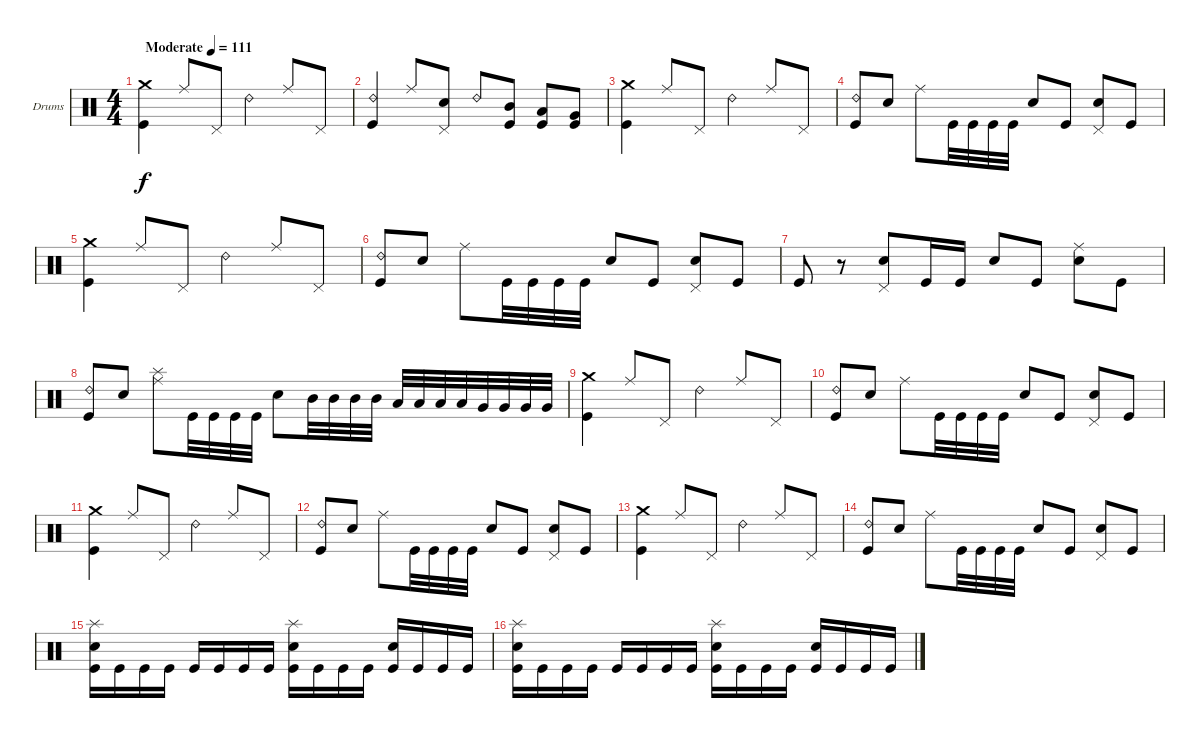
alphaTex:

\bracketExtendMode groupsimilarinstruments
\firstSystemTrackNameOrientation horizontal
\otherSystemsTrackNameOrientation horizontal
\track ("Drumkit" "Drums") {instrument percussion}
\staff {score}
\articulation defaults
\ts (4 4)
\beaming (8 2 2 2 2)
\tempo (111 "Moderate")
\clef neutral
\ks c
("Crash medium (hit)" "Kick (hit)").4{dy f} "Ride (middle)".8 "Pedal Hi-Hat (hit)".8 "Ride (bell) 2".4 "Ride (middle)".8 "Pedal Hi-Hat (hit)".8 |
("Ride (bell) 2" "Kick (hit)").4 "Ride (middle)".8 ("Pedal Hi-Hat (hit)" "Snare (hit) 2").8 "Ride (bell) 2".8 ("Mid Tom (hit)" "Kick (hit)").8 ("Low Tom (hit)" "Kick (hit)").8 ("Very Low Tom (hit)" "Kick (hit)").8 |
("Crash medium (hit)" "Kick (hit)").4 "Ride (middle)".8 "Pedal Hi-Hat (hit)".8 "Ride (bell) 2".4 "Ride (middle)".8 "Pedal Hi-Hat (hit)".8 |
("Ride (bell) 2" "Kick (hit)").8 "Snare (hit) 2".8 "Ride (middle)".8 "Kick (hit)".32 "Kick (hit)".32 "Kick (hit)".32 "Kick (hit)".32 "Snare (hit) 2".8 "Kick (hit)".8 ("Pedal Hi-Hat (hit)" "Snare (hit) 2").8 "Kick (hit)".8 |
("Crash medium (hit)" "Kick (hit)").4 "Ride (middle)".8 "Pedal Hi-Hat (hit)".8 "Ride (bell) 2".4 "Ride (middle)".8 "Pedal Hi-Hat (hit)".8 |
("Ride (bell) 2" "Kick (hit)").8 "Snare (hit) 2".8 "Ride (middle)".8 "Kick (hit)".32 "Kick (hit)".32 "Kick (hit)".32 "Kick (hit)".32 "Snare (hit) 2".8 "Kick (hit)".8 ("Pedal Hi-Hat (hit)" "Snare (hit) 2").8 "Kick (hit)".8 |
"Kick (hit)".8 r.8 ("Pedal Hi-Hat (hit)" "Snare (hit) 2").8 "Kick (hit)".16 "Kick (hit)".16 "Snare (hit) 2".8 "Kick (hit)".8 ("Ride (middle)" "Snare (hit) 2").8 "Kick (hit)".8 |
("Ride (bell) 2" "Kick (hit)").8 "Snare (hit) 2".8 ("Splash (hit)" "Ride (middle)").8 "Kick (hit)".32 "Kick (hit)".32 "Kick (hit)".32 "Kick (hit)".32 "Snare (hit) 2".8 "Mid Tom (hit)".32 "Mid Tom (hit)".32 "Mid Tom (hit)".32 "Mid Tom (hit)".32 "Low Tom (hit)".32 "Low Tom (hit)".32 "Low Tom (hit)".32 "Low Tom (hit)".32 "Very Low Tom (hit)".32 "Very Low Tom (hit)".32 "Very Low Tom (hit)".32 "Very Low Tom (hit)".32 |
("Crash medium (hit)" "Kick (hit)").4 "Ride (middle)".8 "Pedal Hi-Hat (hit)".8 "Ride (bell) 2".4 "Ride (middle)".8 "Pedal Hi-Hat (hit)".8 |
("Ride (bell) 2" "Kick (hit)").8 "Snare (hit) 2".8 "Ride (middle)".8 "Kick (hit)".32 "Kick (hit)".32 "Kick (hit)".32 "Kick (hit)".32 "Snare (hit) 2".8 "Kick (hit)".8 ("Pedal Hi-Hat (hit)" "Snare (hit) 2").8 "Kick (hit)".8 |
("Crash medium (hit)" "Kick (hit)").4 "Ride (middle)".8 "Pedal Hi-Hat (hit)".8 "Ride (bell) 2".4 "Ride (middle)".8 "Pedal Hi-Hat (hit)".8 |
("Ride (bell) 2" "Kick (hit)").8 "Snare (hit) 2".8 "Ride (middle)".8 "Kick (hit)".32 "Kick (hit)".32 "Kick (hit)".32 "Kick (hit)".32 "Snare (hit) 2".8 "Kick (hit)".8 ("Pedal Hi-Hat (hit)" "Snare (hit) 2").8 "Kick (hit)".8 |
("Crash medium (hit)" "Kick (hit)").4 "Ride (middle)".8 "Pedal Hi-Hat (hit)".8 "Ride (bell) 2".4 "Ride (middle)".8 "Pedal Hi-Hat (hit)".8 |
("Ride (bell) 2" "Kick (hit)").8 "Snare (hit) 2".8 "Ride (middle)".8 "Kick (hit)".32 "Kick (hit)".32 "Kick (hit)".32 "Kick (hit)".32 "Snare (hit) 2".8 "Kick (hit)".8 ("Pedal Hi-Hat (hit)" "Snare (hit) 2").8 "Kick (hit)".8 |
("Splash (hit)" "Snare (hit) 2" "Kick (hit)").16 "Kick (hit)".16 "Kick (hit)".16 "Kick (hit)".16 "Kick (hit)".16 "Kick (hit)".16 "Kick (hit)".16 "Kick (hit)".16 ("Splash (hit)" "Snare (hit) 2" "Kick (hit)").16 "Kick (hit)".16 "Kick (hit)".16 "Kick (hit)".16 ("Snare (hit) 2" "Kick (hit)").16 "Kick (hit)".16 "Kick (hit)".16 "Kick (hit)".16 |
("Splash (hit)" "Snare (hit) 2" "Kick (hit)").16 "Kick (hit)".16 "Kick (hit)".16 "Kick (hit)".16 "Kick (hit)".16 "Kick (hit)".16 "Kick (hit)".16 "Kick (hit)".16 ("Splash (hit)" "Snare (hit) 2" "Kick (hit)").16 "Kick (hit)".16 "Kick (hit)".16 "Kick (hit)".16 ("Snare (hit) 2" "Kick (hit)").16 "Kick (hit)".16 "Kick (hit)".16 "Kick (hit)".16
